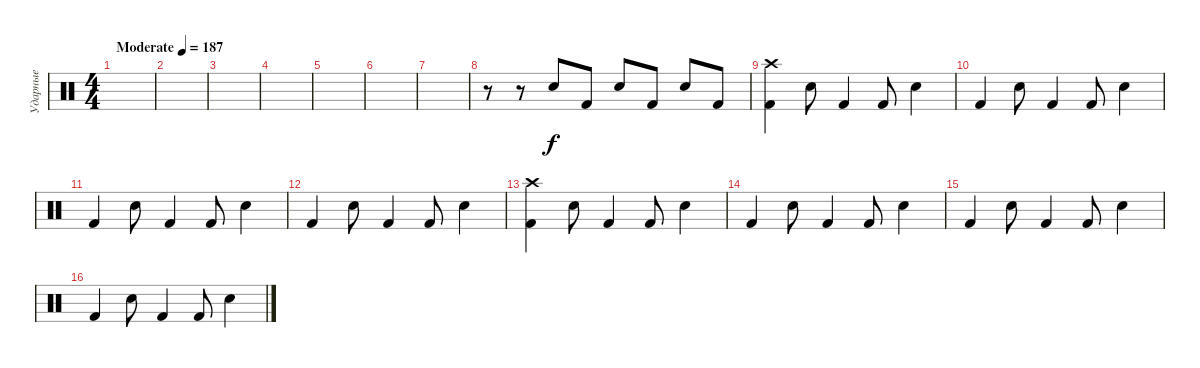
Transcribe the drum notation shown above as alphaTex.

\track ("Ударные" "Ударные") {instrument percussion}
\staff {score}
\articulation defaults
\ts (4 4)
\tempo (187 "Moderate")
\clef neutral
\ks c
|
|
|
|
|
|
|
r.8 r.8 "Snare (hit) 2".8 "Kick (hit) 2".8 "Snare (hit) 2".8 "Kick (hit) 2".8 "Snare (hit) 2".8 "Kick (hit) 2".8 |
("Crash high (hit)" "Kick (hit) 2").4 "Snare (hit) 2".8 "Kick (hit) 2".4 "Kick (hit) 2".8 "Snare (hit) 2".4 |
"Kick (hit) 2".4 "Snare (hit) 2".8 "Kick (hit) 2".4 "Kick (hit) 2".8 "Snare (hit) 2".4 |
"Kick (hit) 2".4 "Snare (hit) 2".8 "Kick (hit) 2".4 "Kick (hit) 2".8 "Snare (hit) 2".4 |
"Kick (hit) 2".4 "Snare (hit) 2".8 "Kick (hit) 2".4 "Kick (hit) 2".8 "Snare (hit) 2".4 |
("Crash high (hit)" "Kick (hit) 2").4 "Snare (hit) 2".8 "Kick (hit) 2".4 "Kick (hit) 2".8 "Snare (hit) 2".4 |
"Kick (hit) 2".4 "Snare (hit) 2".8 "Kick (hit) 2".4 "Kick (hit) 2".8 "Snare (hit) 2".4 |
"Kick (hit) 2".4 "Snare (hit) 2".8 "Kick (hit) 2".4 "Kick (hit) 2".8 "Snare (hit) 2".4 |
"Kick (hit) 2".4 "Snare (hit) 2".8 "Kick (hit) 2".4 "Kick (hit) 2".8 "Snare (hit) 2".4
